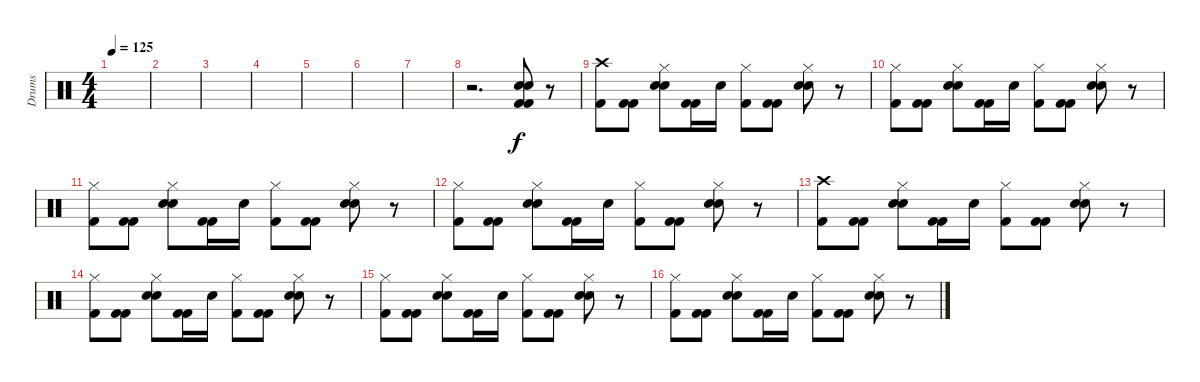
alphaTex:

\track ("Drums" "Drums") {instrument percussion}
\staff {score}
\articulation defaults
\ts (4 4)
\tempo 125
\clef neutral
\ks c
|
|
|
|
|
|
|
r.2{d} ("Hand Clap (hit)" "Snare (hit) 2" "Kick (hit) 2" "Kick (hit) 2").8 r.8 |
("Crash high (hit)" "Kick (hit) 2").8 ("Kick (hit) 2" "Kick (hit) 2").8 ("Hi-Hat (closed)" "Hand Clap (hit)" "Snare (hit) 2").8 ("Kick (hit) 2" "Kick (hit) 2").16 "Snare (hit) 2".16 ("Hi-Hat (closed)" "Kick (hit) 2").8 ("Kick (hit) 2" "Kick (hit) 2").8 ("Hi-Hat (closed)" "Hand Clap (hit)" "Snare (hit) 2").8 r.8 |
("Hi-Hat (closed)" "Kick (hit) 2").8 ("Kick (hit) 2" "Kick (hit) 2").8 ("Hi-Hat (closed)" "Hand Clap (hit)" "Snare (hit) 2").8 ("Kick (hit) 2" "Kick (hit) 2").16 "Snare (hit) 2".16 ("Hi-Hat (closed)" "Kick (hit) 2").8 ("Kick (hit) 2" "Kick (hit) 2").8 ("Hi-Hat (closed)" "Hand Clap (hit)" "Snare (hit) 2").8 r.8 |
("Hi-Hat (closed)" "Kick (hit) 2").8 ("Kick (hit) 2" "Kick (hit) 2").8 ("Hi-Hat (closed)" "Hand Clap (hit)" "Snare (hit) 2").8 ("Kick (hit) 2" "Kick (hit) 2").16 "Snare (hit) 2".16 ("Hi-Hat (closed)" "Kick (hit) 2").8 ("Kick (hit) 2" "Kick (hit) 2").8 ("Hi-Hat (closed)" "Hand Clap (hit)" "Snare (hit) 2").8 r.8 |
("Hi-Hat (closed)" "Kick (hit) 2").8 ("Kick (hit) 2" "Kick (hit) 2").8 ("Hi-Hat (closed)" "Hand Clap (hit)" "Snare (hit) 2").8 ("Kick (hit) 2" "Kick (hit) 2").16 "Snare (hit) 2".16 ("Hi-Hat (closed)" "Kick (hit) 2").8 ("Kick (hit) 2" "Kick (hit) 2").8 ("Hi-Hat (closed)" "Hand Clap (hit)" "Snare (hit) 2").8 r.8 |
("Crash high (hit)" "Kick (hit) 2").8 ("Kick (hit) 2" "Kick (hit) 2").8 ("Hi-Hat (closed)" "Hand Clap (hit)" "Snare (hit) 2").8 ("Kick (hit) 2" "Kick (hit) 2").16 "Snare (hit) 2".16 ("Hi-Hat (closed)" "Kick (hit) 2").8 ("Kick (hit) 2" "Kick (hit) 2").8 ("Hi-Hat (closed)" "Hand Clap (hit)" "Snare (hit) 2").8 r.8 |
("Hi-Hat (closed)" "Kick (hit) 2").8 ("Kick (hit) 2" "Kick (hit) 2").8 ("Hi-Hat (closed)" "Hand Clap (hit)" "Snare (hit) 2").8 ("Kick (hit) 2" "Kick (hit) 2").16 "Snare (hit) 2".16 ("Hi-Hat (closed)" "Kick (hit) 2").8 ("Kick (hit) 2" "Kick (hit) 2").8 ("Hi-Hat (closed)" "Hand Clap (hit)" "Snare (hit) 2").8 r.8 |
("Hi-Hat (closed)" "Kick (hit) 2").8 ("Kick (hit) 2" "Kick (hit) 2").8 ("Hi-Hat (closed)" "Hand Clap (hit)" "Snare (hit) 2").8 ("Kick (hit) 2" "Kick (hit) 2").16 "Snare (hit) 2".16 ("Hi-Hat (closed)" "Kick (hit) 2").8 ("Kick (hit) 2" "Kick (hit) 2").8 ("Hi-Hat (closed)" "Hand Clap (hit)" "Snare (hit) 2").8 r.8 |
("Hi-Hat (closed)" "Kick (hit) 2").8 ("Kick (hit) 2" "Kick (hit) 2").8 ("Hi-Hat (closed)" "Hand Clap (hit)" "Snare (hit) 2").8 ("Kick (hit) 2" "Kick (hit) 2").16 "Snare (hit) 2".16 ("Hi-Hat (closed)" "Kick (hit) 2").8 ("Kick (hit) 2" "Kick (hit) 2").8 ("Hi-Hat (closed)" "Hand Clap (hit)" "Snare (hit) 2").8 r.8
